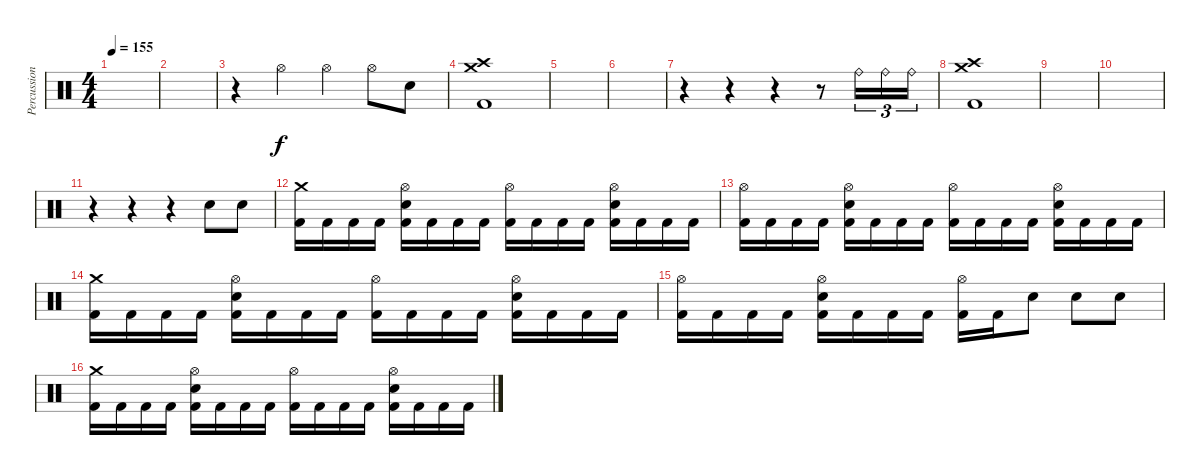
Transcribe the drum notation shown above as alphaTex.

\track ("Percussion" "Percussion") {instrument percussion}
\staff {score}
\articulation defaults
\ts (4 4)
\tempo 155
\clef neutral
\ks c
|
|
r.4 "Hi-Hat (open)".4 "Hi-Hat (open)".4 "Hi-Hat (open)".8 "Snare (hit) 2".8 |
("Kick (hit) 2" "Crash high (hit)" "Crash medium (hit)").1 |
|
|
r.4 r.4 r.4 r.8 "Ride (bell)".16{tu (3 2)} "Ride (bell)".16{tu (3 2)} "Ride (bell)".16{tu (3 2)} |
("Kick (hit) 2" "Crash high (hit)" "Crash medium (hit)").1 |
|
|
r.4 r.4 r.4 "Snare (hit) 2".8 "Snare (hit) 2".8 |
("Kick (hit) 2" "Crash medium (hit)").16 "Kick (hit) 2".16 "Kick (hit) 2".16 "Kick (hit) 2".16 ("Kick (hit) 2" "Snare (hit) 2" "Hi-Hat (open)").16 "Kick (hit) 2".16 "Kick (hit) 2".16 "Kick (hit) 2".16 ("Kick (hit) 2" "Hi-Hat (open)").16 "Kick (hit) 2".16 "Kick (hit) 2".16 "Kick (hit) 2".16 ("Kick (hit) 2" "Snare (hit) 2" "Hi-Hat (open)").16 "Kick (hit) 2".16 "Kick (hit) 2".16 "Kick (hit) 2".16 |
("Kick (hit) 2" "Hi-Hat (open)").16 "Kick (hit) 2".16 "Kick (hit) 2".16 "Kick (hit) 2".16 ("Kick (hit) 2" "Snare (hit) 2" "Hi-Hat (open)").16 "Kick (hit) 2".16 "Kick (hit) 2".16 "Kick (hit) 2".16 ("Kick (hit) 2" "Hi-Hat (open)").16 "Kick (hit) 2".16 "Kick (hit) 2".16 "Kick (hit) 2".16 ("Kick (hit) 2" "Snare (hit) 2" "Hi-Hat (open)").16 "Kick (hit) 2".16 "Kick (hit) 2".16 "Kick (hit) 2".16 |
("Kick (hit) 2" "Crash medium (hit)").16 "Kick (hit) 2".16 "Kick (hit) 2".16 "Kick (hit) 2".16 ("Kick (hit) 2" "Snare (hit) 2" "Hi-Hat (open)").16 "Kick (hit) 2".16 "Kick (hit) 2".16 "Kick (hit) 2".16 ("Kick (hit) 2" "Hi-Hat (open)").16 "Kick (hit) 2".16 "Kick (hit) 2".16 "Kick (hit) 2".16 ("Kick (hit) 2" "Snare (hit) 2" "Hi-Hat (open)").16 "Kick (hit) 2".16 "Kick (hit) 2".16 "Kick (hit) 2".16 |
("Kick (hit) 2" "Hi-Hat (open)").16 "Kick (hit) 2".16 "Kick (hit) 2".16 "Kick (hit) 2".16 ("Kick (hit) 2" "Snare (hit) 2" "Hi-Hat (open)").16 "Kick (hit) 2".16 "Kick (hit) 2".16 "Kick (hit) 2".16 ("Kick (hit) 2" "Hi-Hat (open)").16 "Kick (hit) 2".16 "Snare (hit) 2".8 "Snare (hit) 2".8 "Snare (hit) 2".8 |
("Kick (hit) 2" "Crash medium (hit)").16 "Kick (hit) 2".16 "Kick (hit) 2".16 "Kick (hit) 2".16 ("Kick (hit) 2" "Snare (hit) 2" "Hi-Hat (open)").16 "Kick (hit) 2".16 "Kick (hit) 2".16 "Kick (hit) 2".16 ("Kick (hit) 2" "Hi-Hat (open)").16 "Kick (hit) 2".16 "Kick (hit) 2".16 "Kick (hit) 2".16 ("Kick (hit) 2" "Snare (hit) 2" "Hi-Hat (open)").16 "Kick (hit) 2".16 "Kick (hit) 2".16 "Kick (hit) 2".16
